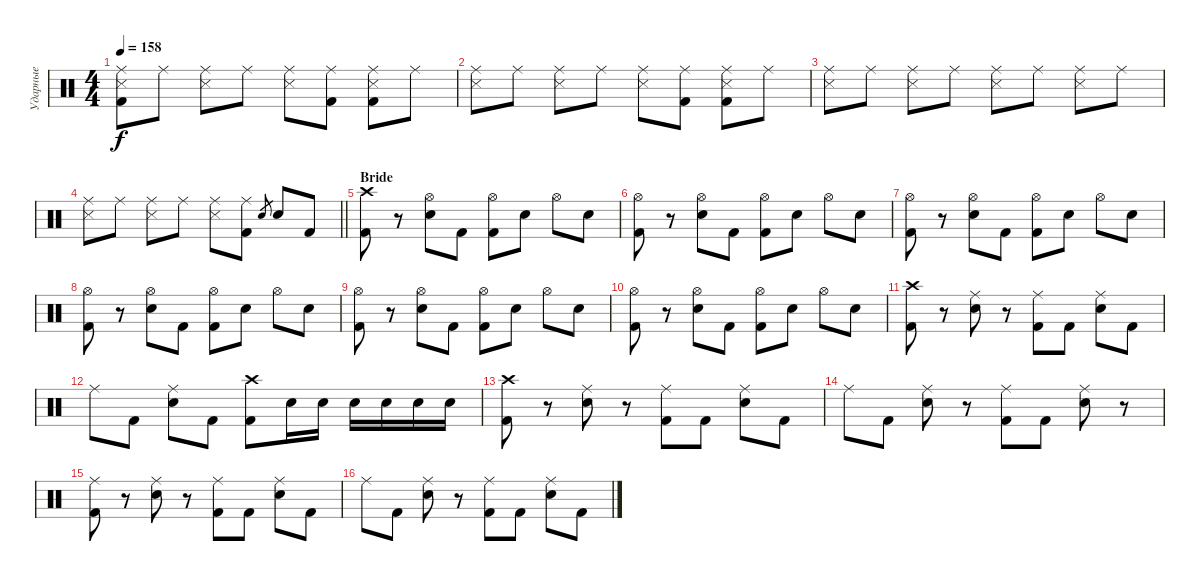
\track ("Ударные" "Ударные") {instrument percussion}
\staff {score}
\articulation defaults
\ts (4 4)
\tempo 158
\clef neutral
\ks c
("Ride (middle)" "Snare (side stick) 3" "Kick (hit) 2").8{dy f} "Ride (middle)".8 ("Ride (middle)" "Snare (side stick) 3").8 "Ride (middle)".8 ("Ride (middle)" "Snare (side stick) 3").8 ("Ride (middle)" "Kick (hit) 2").8 ("Ride (middle)" "Snare (side stick) 3" "Kick (hit) 2").8 "Ride (middle)".8 |
("Ride (middle)" "Snare (side stick) 3").8 "Ride (middle)".8 ("Ride (middle)" "Snare (side stick) 3").8 "Ride (middle)".8 ("Ride (middle)" "Snare (side stick) 3").8 ("Ride (middle)" "Kick (hit) 2").8 ("Ride (middle)" "Snare (side stick) 3" "Kick (hit) 2").8 "Ride (middle)".8 |
("Ride (middle)" "Snare (side stick) 3").8 "Ride (middle)".8 ("Ride (middle)" "Snare (side stick) 3").8 "Ride (middle)".8 ("Ride (middle)" "Snare (side stick) 3").8 "Ride (middle)".8 ("Ride (middle)" "Snare (side stick) 3").8 "Ride (middle)".8 |
\barLineRight lightlight
("Ride (middle)" "Snare (side stick) 3").8 "Ride (middle)".8 ("Ride (middle)" "Snare (side stick) 3").8 "Ride (middle)".8 ("Ride (middle)" "Snare (side stick) 3").8 ("Ride (middle)" "Kick (hit) 2").8 "Electric Snare (hit)".8{gr} "Electric Snare (hit)".8 "Kick (hit) 2".8 |
\section ("" "Bride")
("Crash high (hit)" "Kick (hit) 2").8 r.8 ("Hi-Hat (open)" "Electric Snare (hit)").8 "Kick (hit) 2".8 ("Hi-Hat (open)" "Kick (hit) 2").8 "Electric Snare (hit)".8 "Hi-Hat (open)".8 "Electric Snare (hit)".8 |
("Hi-Hat (open)" "Kick (hit) 2").8 r.8 ("Hi-Hat (open)" "Electric Snare (hit)").8 "Kick (hit) 2".8 ("Hi-Hat (open)" "Kick (hit) 2").8 "Electric Snare (hit)".8 "Hi-Hat (open)".8 "Electric Snare (hit)".8 |
("Hi-Hat (open)" "Kick (hit) 2").8 r.8 ("Hi-Hat (open)" "Electric Snare (hit)").8 "Kick (hit) 2".8 ("Hi-Hat (open)" "Kick (hit) 2").8 "Electric Snare (hit)".8 "Hi-Hat (open)".8 "Electric Snare (hit)".8 |
("Hi-Hat (open)" "Kick (hit) 2").8 r.8 ("Hi-Hat (open)" "Electric Snare (hit)").8 "Kick (hit) 2".8 ("Hi-Hat (open)" "Kick (hit) 2").8 "Electric Snare (hit)".8 "Hi-Hat (open)".8 "Electric Snare (hit)".8 |
("Hi-Hat (open)" "Kick (hit) 2").8 r.8 ("Hi-Hat (open)" "Electric Snare (hit)").8 "Kick (hit) 2".8 ("Hi-Hat (open)" "Kick (hit) 2").8 "Electric Snare (hit)".8 "Hi-Hat (open)".8 "Electric Snare (hit)".8 |
("Hi-Hat (open)" "Kick (hit) 2").8 r.8 ("Hi-Hat (open)" "Electric Snare (hit)").8 "Kick (hit) 2".8 ("Hi-Hat (open)" "Kick (hit) 2").8 "Electric Snare (hit)".8 "Hi-Hat (open)".8 "Electric Snare (hit)".8 |
("Crash high (hit)" "Kick (hit) 2").8 r.8 ("Ride (middle)" "Electric Snare (hit)").8 r.8 ("Ride (middle)" "Kick (hit) 2").8 "Kick (hit) 2".8 ("Ride (middle)" "Electric Snare (hit)").8 "Kick (hit) 2".8 |
"Ride (middle)".8 "Kick (hit) 2".8 ("Ride (middle)" "Electric Snare (hit)").8 "Kick (hit) 2".8 ("Crash high (hit)" "Kick (hit) 2").8 "Electric Snare (hit)".16 "Electric Snare (hit)".16 "Electric Snare (hit)".16 "Electric Snare (hit)".16 "Electric Snare (hit)".16 "Electric Snare (hit)".16 |
("Crash high (hit)" "Kick (hit) 2").8 r.8 ("Ride (middle)" "Electric Snare (hit)").8 r.8 ("Ride (middle)" "Kick (hit) 2").8 "Kick (hit) 2".8 ("Ride (middle)" "Electric Snare (hit)").8 "Kick (hit) 2".8 |
"Ride (middle)".8 "Kick (hit) 2".8 ("Ride (middle)" "Electric Snare (hit)").8 r.8 ("Ride (middle)" "Kick (hit) 2").8 "Kick (hit) 2".8 ("Ride (middle)" "Electric Snare (hit)").8 r.8 |
("Ride (middle)" "Kick (hit) 2").8 r.8 ("Ride (middle)" "Electric Snare (hit)").8 r.8 ("Ride (middle)" "Kick (hit) 2").8 "Kick (hit) 2".8 ("Ride (middle)" "Electric Snare (hit)").8 "Kick (hit) 2".8 |
"Ride (middle)".8 "Kick (hit) 2".8 ("Ride (middle)" "Electric Snare (hit)").8 r.8 ("Ride (middle)" "Kick (hit) 2").8 "Kick (hit) 2".8 ("Ride (middle)" "Electric Snare (hit)").8 "Kick (hit) 2".8
